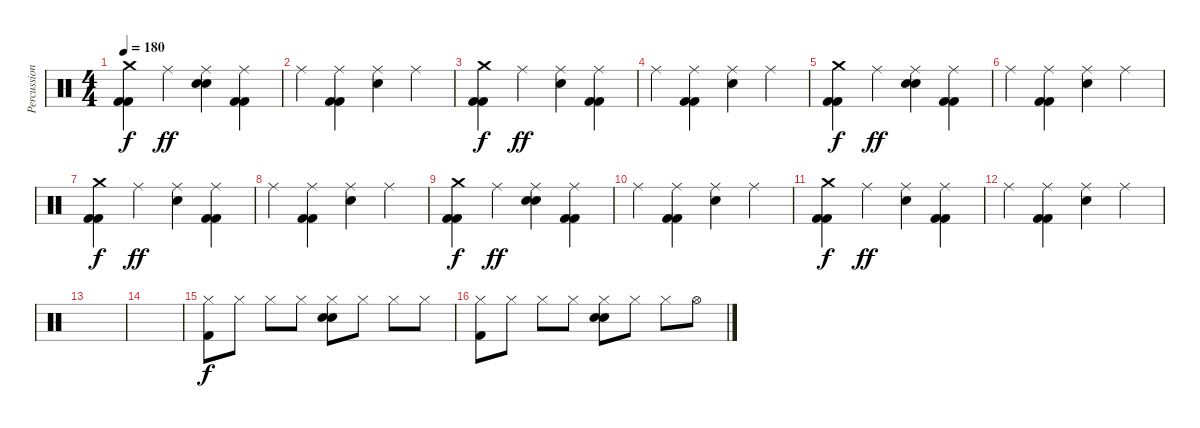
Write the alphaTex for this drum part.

\track ("Percussion" "Percussion") {instrument percussion}
\staff {score}
\articulation defaults
\ts (4 4)
\tempo 180
\clef neutral
\ks c
("Crash medium (hit)" "Kick (hit) 2" "Kick (hit) 2").4{dy f} "Ride (middle)".4{dy ff} ("Ride (middle)" "Electric Snare (hit)" "Snare (hit) 2").4 ("Ride (middle)" "Kick (hit) 2" "Kick (hit) 2").4 |
"Ride (middle)".4 ("Ride (middle)" "Kick (hit) 2" "Kick (hit) 2").4 ("Ride (middle)" "Electric Snare (hit)").4 "Ride (middle)".4 |
("Crash medium (hit)" "Kick (hit) 2" "Kick (hit) 2").4{dy f} "Ride (middle)".4{dy ff} ("Ride (middle)" "Electric Snare (hit)").4 ("Ride (middle)" "Kick (hit) 2" "Kick (hit) 2").4 |
"Ride (middle)".4 ("Ride (middle)" "Kick (hit) 2" "Kick (hit) 2").4 ("Ride (middle)" "Electric Snare (hit)").4 "Ride (middle)".4 |
("Crash medium (hit)" "Kick (hit) 2" "Kick (hit) 2").4{dy f} "Ride (middle)".4{dy ff} ("Ride (middle)" "Electric Snare (hit)" "Snare (hit) 2").4 ("Ride (middle)" "Kick (hit) 2" "Kick (hit) 2").4 |
"Ride (middle)".4 ("Ride (middle)" "Kick (hit) 2" "Kick (hit) 2").4 ("Ride (middle)" "Electric Snare (hit)").4 "Ride (middle)".4 |
("Crash medium (hit)" "Kick (hit) 2" "Kick (hit) 2").4{dy f} "Ride (middle)".4{dy ff} ("Ride (middle)" "Electric Snare (hit)").4 ("Ride (middle)" "Kick (hit) 2" "Kick (hit) 2").4 |
"Ride (middle)".4 ("Ride (middle)" "Kick (hit) 2" "Kick (hit) 2").4 ("Ride (middle)" "Electric Snare (hit)").4 "Ride (middle)".4 |
("Crash medium (hit)" "Kick (hit) 2" "Kick (hit) 2").4{dy f} "Ride (middle)".4{dy ff} ("Ride (middle)" "Electric Snare (hit)" "Snare (hit) 2").4 ("Ride (middle)" "Kick (hit) 2" "Kick (hit) 2").4 |
"Ride (middle)".4 ("Ride (middle)" "Kick (hit) 2" "Kick (hit) 2").4 ("Ride (middle)" "Electric Snare (hit)").4 "Ride (middle)".4 |
("Crash medium (hit)" "Kick (hit) 2" "Kick (hit) 2").4{dy f} "Ride (middle)".4{dy ff} ("Ride (middle)" "Electric Snare (hit)").4 ("Ride (middle)" "Kick (hit) 2" "Kick (hit) 2").4 |
"Ride (middle)".4 ("Ride (middle)" "Kick (hit) 2" "Kick (hit) 2").4 ("Ride (middle)" "Electric Snare (hit)").4 "Ride (middle)".4 |
|
|
("Hi-Hat (closed)" "Kick (hit) 2").8{dy f} "Hi-Hat (closed)".8 "Hi-Hat (closed)".8 "Hi-Hat (closed)".8 ("Hi-Hat (closed)" "Electric Snare (hit)" "Snare (hit) 2").8 "Hi-Hat (closed)".8 "Hi-Hat (closed)".8 "Hi-Hat (closed)".8 |
("Hi-Hat (closed)" "Kick (hit) 2").8 "Hi-Hat (closed)".8 "Hi-Hat (closed)".8 "Hi-Hat (closed)".8 ("Hi-Hat (closed)" "Electric Snare (hit)" "Snare (hit) 2").8 "Hi-Hat (closed)".8 "Hi-Hat (closed)".8 "Hi-Hat (open)".8
